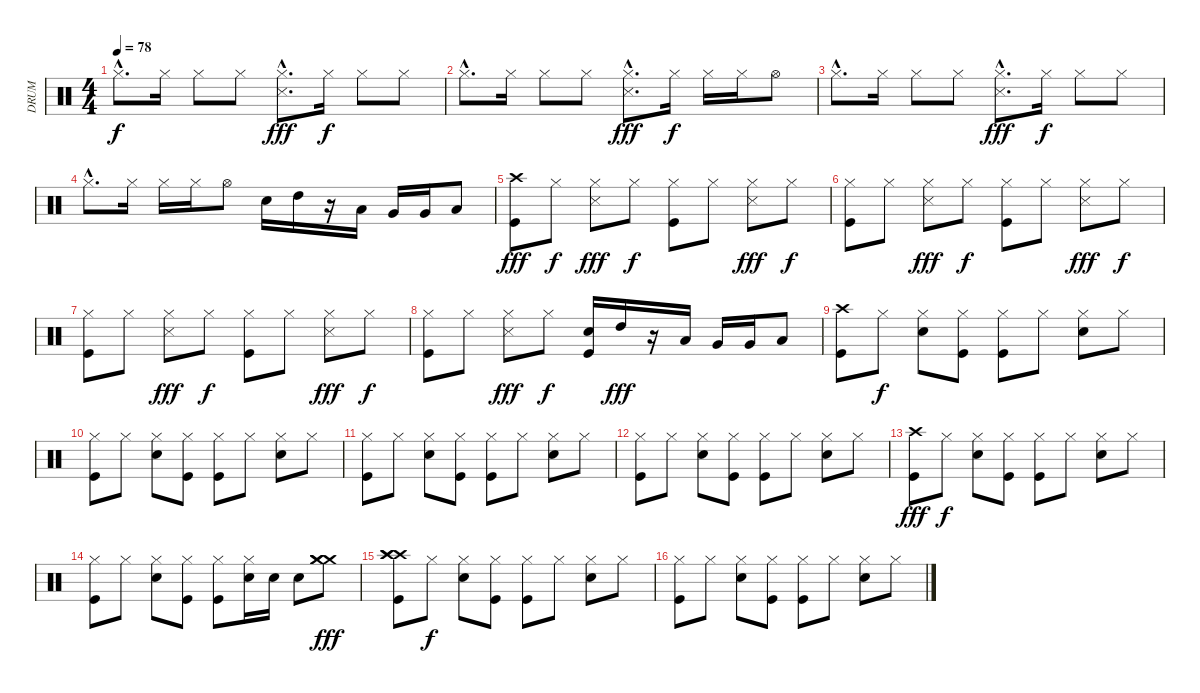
\track ("DRUM" "DRUM") {instrument percussion}
\staff {score}
\articulation defaults
\ts (4 4)
\tempo 78
\clef neutral
\ks c "Hi-Hat (closed)"{hac}.8{d dy f} "Hi-Hat (closed)".16 "Hi-Hat (closed)".8 "Hi-Hat (closed)".8
("Hi-Hat (closed)"{hac} "Snare (side stick) 3"{hac}).8{d dy fff} "Hi-Hat (closed)".16{dy f} "Hi-Hat (closed)".8 "Hi-Hat (closed)".8 |
"Hi-Hat (closed)"{hac}.8{d} "Hi-Hat (closed)".16 "Hi-Hat (closed)".8 "Hi-Hat (closed)".8 ("Hi-Hat (closed)"{hac} "Snare (side stick) 3"{hac}).8{d dy fff} "Hi-Hat (closed)".16{dy f} "Hi-Hat (closed)".16 "Hi-Hat (closed)".16 "Hi-Hat (open)".8 |
"Hi-Hat (closed)"{hac}.8{d} "Hi-Hat (closed)".16 "Hi-Hat (closed)".8 "Hi-Hat (closed)".8 ("Hi-Hat (closed)"{hac} "Snare (side stick) 3"{hac}).8{d dy fff} "Hi-Hat (closed)".16{dy f} "Hi-Hat (closed)".8 "Hi-Hat (closed)".8 |
"Hi-Hat (closed)"{hac}.8{d} "Hi-Hat (closed)".16 "Hi-Hat (closed)".16 "Hi-Hat (closed)".16 "Hi-Hat (open)".8 "Electric Snare (hit)".16 "High Tom (hit)".16 r.16 "Low Tom (hit)".16 "Very Low Tom (hit)".16 "Very Low Tom (hit)".16 "Low Floor Tom (hit)".8 |
("Crash high (hit)" "Kick (hit)").8{dy fff} "Hi-Hat (closed)".8{dy f} ("Hi-Hat (closed)" "Snare (side stick) 3").8{dy fff} "Hi-Hat (closed)".8{dy f} ("Hi-Hat (closed)" "Kick (hit)").8 "Hi-Hat (closed)".8 ("Hi-Hat (closed)" "Snare (side stick) 3").8{dy fff} "Hi-Hat (closed)".8{dy f} |
("Hi-Hat (closed)" "Kick (hit)").8 "Hi-Hat (closed)".8 ("Hi-Hat (closed)" "Snare (side stick) 3").8{dy fff} "Hi-Hat (closed)".8{dy f} ("Hi-Hat (closed)" "Kick (hit)").8 "Hi-Hat (closed)".8 ("Hi-Hat (closed)" "Snare (side stick) 3").8{dy fff} "Hi-Hat (closed)".8{dy f} |
("Hi-Hat (closed)" "Kick (hit)").8 "Hi-Hat (closed)".8 ("Hi-Hat (closed)" "Snare (side stick) 3").8{dy fff} "Hi-Hat (closed)".8{dy f} ("Hi-Hat (closed)" "Kick (hit)").8 "Hi-Hat (closed)".8 ("Hi-Hat (closed)" "Snare (side stick) 3").8{dy fff} "Hi-Hat (closed)".8{dy f} |
("Hi-Hat (closed)" "Kick (hit)").8 "Hi-Hat (closed)".8 ("Hi-Hat (closed)" "Snare (side stick) 3").8{dy fff} "Hi-Hat (closed)".8{dy f} ("Electric Snare (hit)" "Kick (hit)").16 "High Tom (hit)".16{dy fff} r.16 "Low Tom (hit)".16 "Very Low Tom (hit)".16 "Very Low Tom (hit)".16 "Low Floor Tom (hit)".8 |
("Crash high (hit)" "Kick (hit)").8 "Hi-Hat (closed)".8{dy f} ("Hi-Hat (closed)" "Electric Snare (hit)").8 ("Hi-Hat (closed)" "Kick (hit)").8 ("Hi-Hat (closed)" "Kick (hit)").8 "Hi-Hat (closed)".8 ("Hi-Hat (closed)" "Electric Snare (hit)").8 "Hi-Hat (closed)".8 |
("Hi-Hat (closed)" "Kick (hit)").8 "Hi-Hat (closed)".8 ("Hi-Hat (closed)" "Electric Snare (hit)").8 ("Hi-Hat (closed)" "Kick (hit)").8 ("Hi-Hat (closed)" "Kick (hit)").8 "Hi-Hat (closed)".8 ("Hi-Hat (closed)" "Electric Snare (hit)").8 "Hi-Hat (closed)".8 |
("Hi-Hat (closed)" "Kick (hit)").8 "Hi-Hat (closed)".8 ("Hi-Hat (closed)" "Electric Snare (hit)").8 ("Hi-Hat (closed)" "Kick (hit)").8 ("Hi-Hat (closed)" "Kick (hit)").8 "Hi-Hat (closed)".8 ("Hi-Hat (closed)" "Electric Snare (hit)").8 "Hi-Hat (closed)".8 |
("Hi-Hat (closed)" "Kick (hit)").8 "Hi-Hat (closed)".8 ("Hi-Hat (closed)" "Electric Snare (hit)").8 ("Hi-Hat (closed)" "Kick (hit)").8 ("Hi-Hat (closed)" "Kick (hit)").8 "Hi-Hat (closed)".8 ("Hi-Hat (closed)" "Electric Snare (hit)").8 "Hi-Hat (closed)".8 |
("Crash high (hit)" "Kick (hit)").8{dy fff} "Hi-Hat (closed)".8{dy f} ("Hi-Hat (closed)" "Electric Snare (hit)").8 ("Hi-Hat (closed)" "Kick (hit)").8 ("Hi-Hat (closed)" "Kick (hit)").8 "Hi-Hat (closed)".8 ("Hi-Hat (closed)" "Electric Snare (hit)").8 "Hi-Hat (closed)".8 |
("Hi-Hat (closed)" "Kick (hit)").8 "Hi-Hat (closed)".8 ("Hi-Hat (closed)" "Electric Snare (hit)").8 ("Hi-Hat (closed)" "Kick (hit)").8 ("Hi-Hat (closed)" "Kick (hit)").8 ("Hi-Hat (closed)" "Electric Snare (hit)").16 "Electric Snare (hit)".16 "Electric Snare (hit)".8 ("Crash medium (hit)" "Crash medium (hit)" "Crash medium (hit)").8{dy fff} |
("Crash high (hit)" "Crash high (hit)" "Crash high (hit)" "Kick (hit)").8 "Hi-Hat (closed)".8{dy f} ("Hi-Hat (closed)" "Electric Snare (hit)").8 ("Hi-Hat (closed)" "Kick (hit)").8 ("Hi-Hat (closed)" "Kick (hit)").8 "Hi-Hat (closed)".8 ("Hi-Hat (closed)" "Electric Snare (hit)").8 "Hi-Hat (closed)".8 |
("Hi-Hat (closed)" "Kick (hit)").8 "Hi-Hat (closed)".8 ("Hi-Hat (closed)" "Electric Snare (hit)").8 ("Hi-Hat (closed)" "Kick (hit)").8 ("Hi-Hat (closed)" "Kick (hit)").8 "Hi-Hat (closed)".8 ("Hi-Hat (closed)" "Electric Snare (hit)").8 "Hi-Hat (closed)".8
